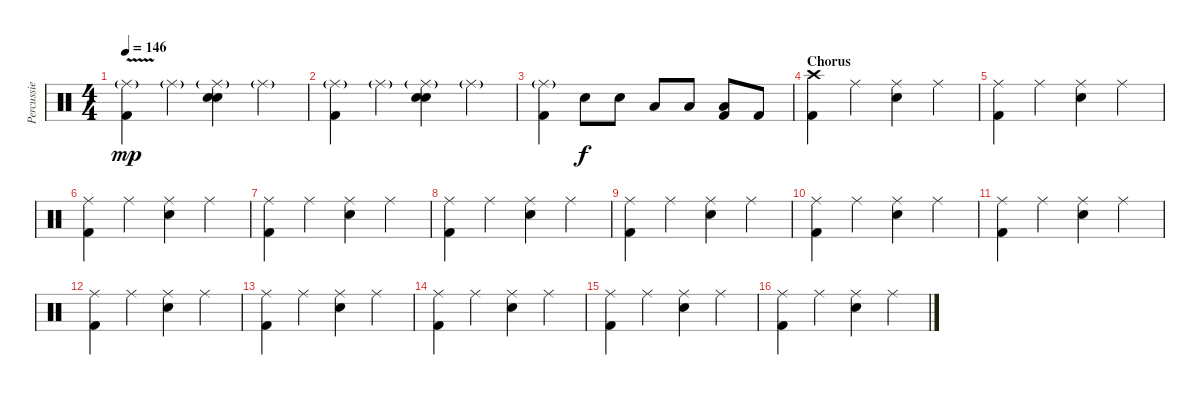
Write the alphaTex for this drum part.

\track ("Percussie" "Percussie") {instrument percussion}
\staff {score}
\articulation defaults
\ts (4 4)
\tempo 146
\clef neutral
\ks c
("Ride (middle)"{g} "Kick (hit) 2"{v}).4{dy mp} "Ride (middle)"{g}.4 ("Ride (middle)"{g} "Snare (hit) 2" "Snare (hit) 2").4 "Ride (middle)"{g}.4 |
("Ride (middle)"{g} "Kick (hit) 2").4 "Ride (middle)"{g}.4 ("Ride (middle)"{g} "Snare (hit) 2" "Snare (hit) 2").4 "Ride (middle)"{g}.4 |
("Ride (middle)"{g} "Kick (hit) 2").4 "Snare (hit) 2".8{dy f} "Snare (hit) 2".8 "Low Floor Tom (hit)".8 "Low Floor Tom (hit)".8 ("Low Floor Tom (hit)" "Kick (hit) 2").8 "Kick (hit) 2".8 |
\section ("" "Chorus")
("Crash high (hit)" "Kick (hit) 2").4 "Ride (middle)".4 ("Ride (middle)" "Snare (hit) 2").4 "Ride (middle)".4 |
("Ride (middle)" "Kick (hit) 2").4 "Ride (middle)".4 ("Ride (middle)" "Snare (hit) 2").4 "Ride (middle)".4 |
("Ride (middle)" "Kick (hit) 2").4 "Ride (middle)".4 ("Ride (middle)" "Snare (hit) 2").4 "Ride (middle)".4 |
("Ride (middle)" "Kick (hit) 2").4 "Ride (middle)".4 ("Ride (middle)" "Snare (hit) 2").4 "Ride (middle)".4 |
("Ride (middle)" "Kick (hit) 2").4 "Ride (middle)".4 ("Ride (middle)" "Snare (hit) 2").4 "Ride (middle)".4 |
("Ride (middle)" "Kick (hit) 2").4 "Ride (middle)".4 ("Ride (middle)" "Snare (hit) 2").4 "Ride (middle)".4 |
("Ride (middle)" "Kick (hit) 2").4 "Ride (middle)".4 ("Ride (middle)" "Snare (hit) 2").4 "Ride (middle)".4 |
("Ride (middle)" "Kick (hit) 2").4 "Ride (middle)".4 ("Ride (middle)" "Snare (hit) 2").4 "Ride (middle)".4 |
("Ride (middle)" "Kick (hit) 2").4 "Ride (middle)".4 ("Ride (middle)" "Snare (hit) 2").4 "Ride (middle)".4 |
("Ride (middle)" "Kick (hit) 2").4 "Ride (middle)".4 ("Ride (middle)" "Snare (hit) 2").4 "Ride (middle)".4 |
("Ride (middle)" "Kick (hit) 2").4 "Ride (middle)".4 ("Ride (middle)" "Snare (hit) 2").4 "Ride (middle)".4 |
("Ride (middle)" "Kick (hit) 2").4 "Ride (middle)".4 ("Ride (middle)" "Snare (hit) 2").4 "Ride (middle)".4 |
("Ride (middle)" "Kick (hit) 2").4 "Ride (middle)".4 ("Ride (middle)" "Snare (hit) 2").4 "Ride (middle)".4
